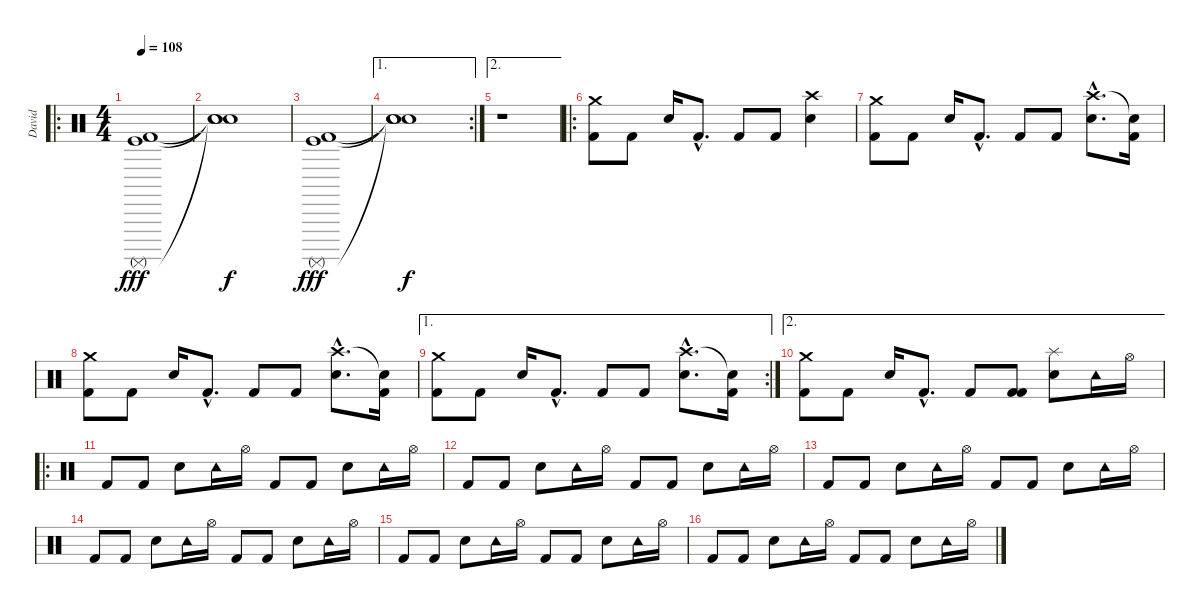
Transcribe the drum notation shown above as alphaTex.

\track ("David" "David") {instrument percussion}
\staff {score}
\articulation defaults
\ro
\ts (4 4)
\tempo 108
\clef neutral
\ks c
("Kick (hit) 2" "Kick (hit)" "Surdo (mute)").1{dy fff} |
("Snare (hit)"{t} "Snare (hit)"{t} "Snare (hit)"{t}).1{dy f} |
("Kick (hit) 2" "Kick (hit)" "Surdo (mute)").1{dy fff} |
\ae 1
\rc 2
("Snare (hit)"{t} "Snare (hit)"{t} "Snare (hit)"{t}).1{dy f} |
\ae 2
r.1 |
\ro
("Crash medium (hit)" "Kick (hit) 2").8 "Kick (hit) 2".8 "Snare (hit) 2".16 "Kick (hit) 2"{hac}.8{d} "Kick (hit) 2".8 "Kick (hit) 2".8 ("Crash high (hit)" "Snare (hit) 2").4 |
("Crash medium (hit)" "Kick (hit) 2").8 "Kick (hit) 2".8 "Snare (hit) 2".16 "Kick (hit) 2"{hac}.8{d} "Kick (hit) 2".8 "Kick (hit) 2".8 ("Crash high (hit)"{hac} "Snare (hit) 2"{hac}).8{d} ("Snare (hit)"{t} "Kick (hit) 2").16 |
("Crash medium (hit)" "Kick (hit) 2").8 "Kick (hit) 2".8 "Snare (hit) 2".16 "Kick (hit) 2"{hac}.8{d} "Kick (hit) 2".8 "Kick (hit) 2".8 ("Crash high (hit)"{hac} "Snare (hit) 2"{hac}).8{d} ("Snare (hit)"{t} "Kick (hit) 2").16 |
\ae 1
\rc 2
("Crash medium (hit)" "Kick (hit) 2").8 "Kick (hit) 2".8 "Snare (hit) 2".16 "Kick (hit) 2"{hac}.8{d} "Kick (hit) 2".8 "Kick (hit) 2".8 ("Crash high (hit)"{hac} "Snare (hit) 2"{hac}).8{d} ("Snare (hit)"{t} "Kick (hit) 2").16 |
\ae 2
("Crash medium (hit)" "Kick (hit) 2").8 "Kick (hit) 2".8 "Snare (hit) 2".16 "Kick (hit) 2"{hac}.8{d} "Kick (hit) 2".8 ("Kick (hit) 2" "Kick (hit) 2").8 ("Splash (hit)" "Snare (hit) 2").8 "Tambourine (hit)".16 "Hi-Hat (open)".16 |
\ro "Kick (hit) 2".8 "Kick (hit) 2".8 "Snare (hit) 2".8 "Tambourine (hit)".16 "Hi-Hat (open)".16 "Kick (hit) 2".8 "Kick (hit) 2".8 "Snare (hit) 2".8 "Tambourine (hit)".16 "Hi-Hat (open)".16
|
"Kick (hit) 2".8 "Kick (hit) 2".8 "Snare (hit) 2".8 "Tambourine (hit)".16 "Hi-Hat (open)".16 "Kick (hit) 2".8 "Kick (hit) 2".8 "Snare (hit) 2".8 "Tambourine (hit)".16 "Hi-Hat (open)".16 |
"Kick (hit) 2".8 "Kick (hit) 2".8 "Snare (hit) 2".8 "Tambourine (hit)".16 "Hi-Hat (open)".16 "Kick (hit) 2".8 "Kick (hit) 2".8 "Snare (hit) 2".8 "Tambourine (hit)".16 "Hi-Hat (open)".16 |
"Kick (hit) 2".8 "Kick (hit) 2".8 "Snare (hit) 2".8 "Tambourine (hit)".16 "Hi-Hat (open)".16 "Kick (hit) 2".8 "Kick (hit) 2".8 "Snare (hit) 2".8 "Tambourine (hit)".16 "Hi-Hat (open)".16 |
"Kick (hit) 2".8 "Kick (hit) 2".8 "Snare (hit) 2".8 "Tambourine (hit)".16 "Hi-Hat (open)".16 "Kick (hit) 2".8 "Kick (hit) 2".8 "Snare (hit) 2".8 "Tambourine (hit)".16 "Hi-Hat (open)".16 |
"Kick (hit) 2".8 "Kick (hit) 2".8 "Snare (hit) 2".8 "Tambourine (hit)".16 "Hi-Hat (open)".16 "Kick (hit) 2".8 "Kick (hit) 2".8 "Snare (hit) 2".8 "Tambourine (hit)".16 "Hi-Hat (open)".16
